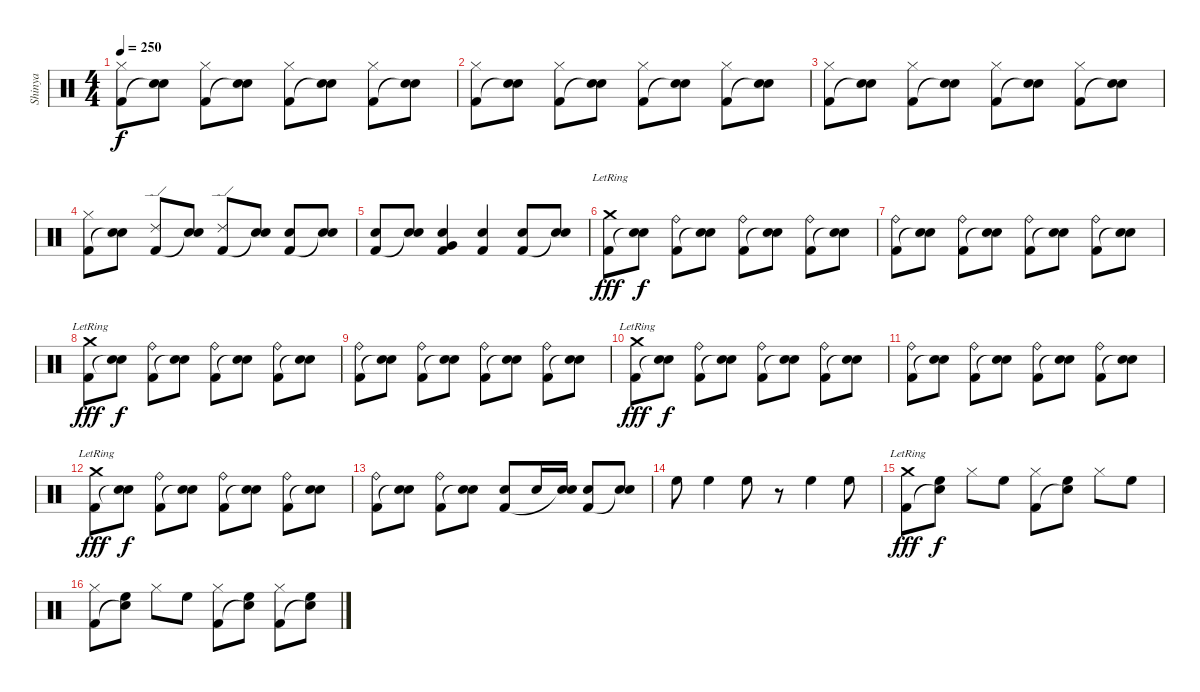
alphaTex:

\track ("Shinya" "Shinya") {instrument percussion}
\staff {score}
\articulation defaults
\ts (4 4)
\tempo 250
\clef neutral
\ks c
("Hi-Hat (closed)" "Kick (hit) 2").8{dy f} ("Electric Snare (hit)" "Snare (hit)"{t}).8 ("Hi-Hat (closed)" "Kick (hit) 2").8 ("Electric Snare (hit)" "Snare (hit)"{t}).8 ("Hi-Hat (closed)" "Kick (hit) 2").8 ("Electric Snare (hit)" "Snare (hit)"{t}).8 ("Hi-Hat (closed)" "Kick (hit) 2").8 ("Electric Snare (hit)" "Snare (hit)"{t}).8 |
("Hi-Hat (closed)" "Kick (hit) 2").8 ("Electric Snare (hit)" "Snare (hit)"{t}).8 ("Hi-Hat (closed)" "Kick (hit) 2").8 ("Electric Snare (hit)" "Snare (hit)"{t}).8 ("Hi-Hat (closed)" "Kick (hit) 2").8 ("Electric Snare (hit)" "Snare (hit)"{t}).8 ("Hi-Hat (closed)" "Kick (hit) 2").8 ("Electric Snare (hit)" "Snare (hit)"{t}).8 |
("Hi-Hat (closed)" "Kick (hit) 2").8 ("Electric Snare (hit)" "Snare (hit)"{t}).8 ("Hi-Hat (closed)" "Kick (hit) 2").8 ("Electric Snare (hit)" "Snare (hit)"{t}).8 ("Hi-Hat (closed)" "Kick (hit) 2").8 ("Electric Snare (hit)" "Snare (hit)"{t}).8 ("Hi-Hat (closed)" "Kick (hit) 2").8 ("Electric Snare (hit)" "Snare (hit)"{t}).8 |
("Hi-Hat (closed)" "Kick (hit) 2").8 ("Electric Snare (hit)" "Snare (hit)"{t}).8 ("Ride (edge) 2" "Kick (hit) 2").8 ("Electric Snare (hit)" "Snare (hit)"{t}).8 ("Ride (edge) 2" "Kick (hit) 2").8 ("Electric Snare (hit)" "Snare (hit)"{t}).8 ("Electric Snare (hit)" "Kick (hit) 2").8 ("Electric Snare (hit)" "Snare (hit)"{t}).8 |
("Electric Snare (hit)" "Kick (hit) 2").8 ("Electric Snare (hit)" "Snare (hit)"{t}).8 ("Electric Snare (hit)" "Very Low Tom (hit)" "Kick (hit) 2").4 ("Electric Snare (hit)" "Kick (hit) 2").4 ("Electric Snare (hit)" "Kick (hit) 2").8 ("Electric Snare (hit)" "Snare (hit)"{t}).8 |
("Crash medium (hit)"{lr} "Kick (hit) 2").8{dy fff} ("Electric Snare (hit)" "Snare (hit)"{t}).8{dy f} ("Ride (bell)" "Kick (hit) 2").8 ("Electric Snare (hit)" "Snare (hit)"{t}).8 ("Ride (bell)" "Kick (hit) 2").8 ("Electric Snare (hit)" "Snare (hit)"{t}).8 ("Ride (bell)" "Kick (hit) 2").8 ("Electric Snare (hit)" "Snare (hit)"{t}).8 |
("Ride (bell)" "Kick (hit) 2").8 ("Electric Snare (hit)" "Snare (hit)"{t}).8 ("Ride (bell)" "Kick (hit) 2").8 ("Electric Snare (hit)" "Snare (hit)"{t}).8 ("Ride (bell)" "Kick (hit) 2").8 ("Electric Snare (hit)" "Snare (hit)"{t}).8 ("Ride (bell)" "Kick (hit) 2").8 ("Electric Snare (hit)" "Snare (hit)"{t}).8 |
("Crash medium (hit)"{lr} "Kick (hit) 2").8{dy fff} ("Electric Snare (hit)" "Snare (hit)"{t}).8{dy f} ("Ride (bell)" "Kick (hit) 2").8 ("Electric Snare (hit)" "Snare (hit)"{t}).8 ("Ride (bell)" "Kick (hit) 2").8 ("Electric Snare (hit)" "Snare (hit)"{t}).8 ("Ride (bell)" "Kick (hit) 2").8 ("Electric Snare (hit)" "Snare (hit)"{t}).8 |
("Ride (bell)" "Kick (hit) 2").8 ("Electric Snare (hit)" "Snare (hit)"{t}).8 ("Ride (bell)" "Kick (hit) 2").8 ("Electric Snare (hit)" "Snare (hit)"{t}).8 ("Ride (bell)" "Kick (hit) 2").8 ("Electric Snare (hit)" "Snare (hit)"{t}).8 ("Ride (bell)" "Kick (hit) 2").8 ("Electric Snare (hit)" "Snare (hit)"{t}).8 |
("Crash medium (hit)"{lr} "Kick (hit) 2").8{dy fff} ("Electric Snare (hit)" "Snare (hit)"{t}).8{dy f} ("Ride (bell)" "Kick (hit) 2").8 ("Electric Snare (hit)" "Snare (hit)"{t}).8 ("Ride (bell)" "Kick (hit) 2").8 ("Electric Snare (hit)" "Snare (hit)"{t}).8 ("Ride (bell)" "Kick (hit) 2").8 ("Electric Snare (hit)" "Snare (hit)"{t}).8 |
("Ride (bell)" "Kick (hit) 2").8 ("Electric Snare (hit)" "Snare (hit)"{t}).8 ("Ride (bell)" "Kick (hit) 2").8 ("Electric Snare (hit)" "Snare (hit)"{t}).8 ("Ride (bell)" "Kick (hit) 2").8 ("Electric Snare (hit)" "Snare (hit)"{t}).8 ("Ride (bell)" "Kick (hit) 2").8 ("Electric Snare (hit)" "Snare (hit)"{t}).8 |
("Crash medium (hit)"{lr} "Kick (hit) 2").8{dy fff} ("Electric Snare (hit)" "Snare (hit)"{t}).8{dy f} ("Ride (bell)" "Kick (hit) 2").8 ("Electric Snare (hit)" "Snare (hit)"{t}).8 ("Ride (bell)" "Kick (hit) 2").8 ("Electric Snare (hit)" "Snare (hit)"{t}).8 ("Ride (bell)" "Kick (hit) 2").8 ("Electric Snare (hit)" "Snare (hit)"{t}).8 |
("Ride (bell)" "Kick (hit) 2").8 ("Electric Snare (hit)" "Snare (hit)"{t}).8 ("Ride (bell)" "Kick (hit) 2").8 ("Electric Snare (hit)" "Snare (hit)"{t}).8 ("Electric Snare (hit)" "Kick (hit) 2").8 "Electric Snare (hit)".16 ("Electric Snare (hit)" "Snare (hit)"{t}).16 ("Electric Snare (hit)" "Kick (hit) 2").8 ("Electric Snare (hit)" "Snare (hit)"{t}).8 |
"High Floor Tom (hit)".8 "High Floor Tom (hit)".4 "High Floor Tom (hit)".8 r.8 "High Floor Tom (hit)".4 "High Floor Tom (hit)".8 |
("Crash medium (hit)"{lr} "Kick (hit) 2").8{dy fff balance 2} ("High Floor Tom (hit)" "Snare (hit)"{t}).8{dy f} "Hi-Hat (closed)".8 "High Floor Tom (hit)".8 ("Hi-Hat (closed)" "Kick (hit) 2").8 ("High Floor Tom (hit)" "Snare (hit)"{t}).8 "Hi-Hat (closed)".8 "High Floor Tom (hit)".8 |
("Hi-Hat (closed)" "Kick (hit) 2").8 ("High Floor Tom (hit)" "Snare (hit)"{t}).8 "Hi-Hat (closed)".8 "High Floor Tom (hit)".8 ("Hi-Hat (closed)" "Kick (hit) 2").8 ("High Floor Tom (hit)" "Snare (hit)"{t}).8 ("Hi-Hat (closed)" "Kick (hit) 2").8 ("High Floor Tom (hit)" "Snare (hit)"{t}).8
